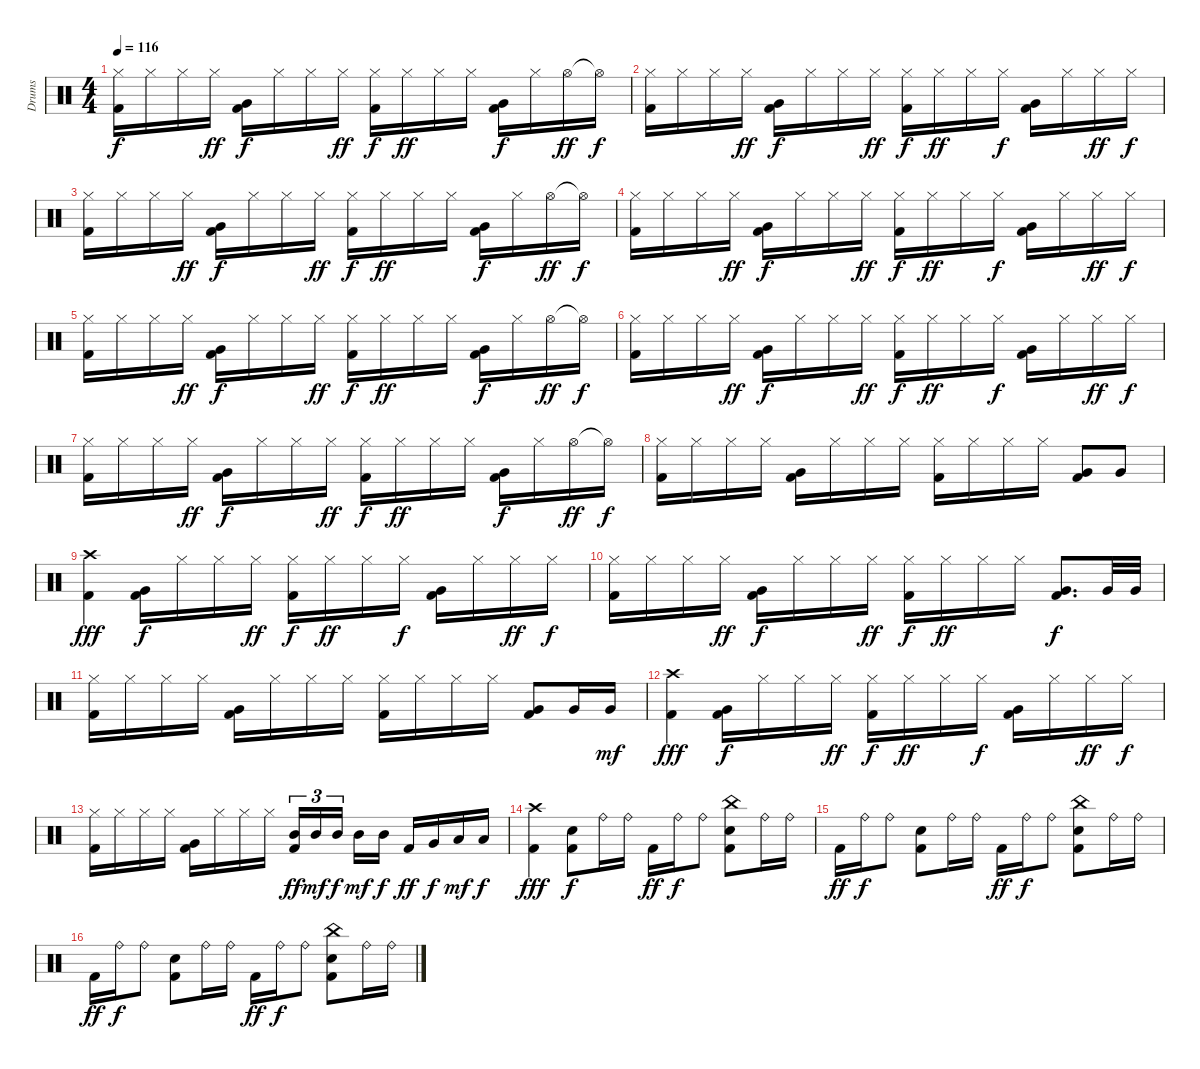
\track ("Drums" "Drums") {instrument percussion}
\staff {score}
\articulation defaults
\ts (4 4)
\tempo 116
\clef neutral
\ks c
("Hi-Hat (closed)" "Kick (hit) 2").16{dy f} "Hi-Hat (closed)".16 "Hi-Hat (closed)".16 "Hi-Hat (closed)".16{dy ff} ("Very Low Tom (hit)" "Kick (hit) 2").16{dy f} "Hi-Hat (closed)".16 "Hi-Hat (closed)".16 "Hi-Hat (closed)".16{dy ff} ("Hi-Hat (closed)" "Kick (hit) 2").16{dy f} "Hi-Hat (closed)".16{dy ff} "Hi-Hat (closed)".16 "Hi-Hat (closed)".16 ("Very Low Tom (hit)" "Kick (hit) 2").16{dy f} "Hi-Hat (closed)".16 "Hi-Hat (open)".16{dy ff} "Hi-Hat (open)"{t}.16{dy f} |
("Hi-Hat (closed)" "Kick (hit) 2").16 "Hi-Hat (closed)".16 "Hi-Hat (closed)".16 "Hi-Hat (closed)".16{dy ff} ("Very Low Tom (hit)" "Kick (hit) 2").16{dy f} "Hi-Hat (closed)".16 "Hi-Hat (closed)".16 "Hi-Hat (closed)".16{dy ff} ("Hi-Hat (closed)" "Kick (hit) 2").16{dy f} "Hi-Hat (closed)".16{dy ff} "Hi-Hat (closed)".16 "Hi-Hat (closed)".16{dy f} ("Very Low Tom (hit)" "Kick (hit) 2").16 "Hi-Hat (closed)".16 "Hi-Hat (closed)".16{dy ff} "Hi-Hat (closed)".16{dy f} |
("Hi-Hat (closed)" "Kick (hit) 2").16 "Hi-Hat (closed)".16 "Hi-Hat (closed)".16 "Hi-Hat (closed)".16{dy ff} ("Very Low Tom (hit)" "Kick (hit) 2").16{dy f} "Hi-Hat (closed)".16 "Hi-Hat (closed)".16 "Hi-Hat (closed)".16{dy ff} ("Hi-Hat (closed)" "Kick (hit) 2").16{dy f} "Hi-Hat (closed)".16{dy ff} "Hi-Hat (closed)".16 "Hi-Hat (closed)".16 ("Very Low Tom (hit)" "Kick (hit) 2").16{dy f} "Hi-Hat (closed)".16 "Hi-Hat (open)".16{dy ff} "Hi-Hat (open)"{t}.16{dy f} |
("Hi-Hat (closed)" "Kick (hit) 2").16 "Hi-Hat (closed)".16 "Hi-Hat (closed)".16 "Hi-Hat (closed)".16{dy ff} ("Very Low Tom (hit)" "Kick (hit) 2").16{dy f} "Hi-Hat (closed)".16 "Hi-Hat (closed)".16 "Hi-Hat (closed)".16{dy ff} ("Hi-Hat (closed)" "Kick (hit) 2").16{dy f} "Hi-Hat (closed)".16{dy ff} "Hi-Hat (closed)".16 "Hi-Hat (closed)".16{dy f} ("Very Low Tom (hit)" "Kick (hit) 2").16 "Hi-Hat (closed)".16 "Hi-Hat (closed)".16{dy ff} "Hi-Hat (closed)".16{dy f} |
("Hi-Hat (closed)" "Kick (hit) 2").16 "Hi-Hat (closed)".16 "Hi-Hat (closed)".16 "Hi-Hat (closed)".16{dy ff} ("Very Low Tom (hit)" "Kick (hit) 2").16{dy f} "Hi-Hat (closed)".16 "Hi-Hat (closed)".16 "Hi-Hat (closed)".16{dy ff} ("Hi-Hat (closed)" "Kick (hit) 2").16{dy f} "Hi-Hat (closed)".16{dy ff} "Hi-Hat (closed)".16 "Hi-Hat (closed)".16 ("Very Low Tom (hit)" "Kick (hit) 2").16{dy f} "Hi-Hat (closed)".16 "Hi-Hat (open)".16{dy ff} "Hi-Hat (open)"{t}.16{dy f} |
("Hi-Hat (closed)" "Kick (hit) 2").16 "Hi-Hat (closed)".16 "Hi-Hat (closed)".16 "Hi-Hat (closed)".16{dy ff} ("Very Low Tom (hit)" "Kick (hit) 2").16{dy f} "Hi-Hat (closed)".16 "Hi-Hat (closed)".16 "Hi-Hat (closed)".16{dy ff} ("Hi-Hat (closed)" "Kick (hit) 2").16{dy f} "Hi-Hat (closed)".16{dy ff} "Hi-Hat (closed)".16 "Hi-Hat (closed)".16{dy f} ("Very Low Tom (hit)" "Kick (hit) 2").16 "Hi-Hat (closed)".16 "Hi-Hat (closed)".16{dy ff} "Hi-Hat (closed)".16{dy f} |
("Hi-Hat (closed)" "Kick (hit) 2").16 "Hi-Hat (closed)".16 "Hi-Hat (closed)".16 "Hi-Hat (closed)".16{dy ff} ("Very Low Tom (hit)" "Kick (hit) 2").16{dy f} "Hi-Hat (closed)".16 "Hi-Hat (closed)".16 "Hi-Hat (closed)".16{dy ff} ("Hi-Hat (closed)" "Kick (hit) 2").16{dy f} "Hi-Hat (closed)".16{dy ff} "Hi-Hat (closed)".16 "Hi-Hat (closed)".16 ("Very Low Tom (hit)" "Kick (hit) 2").16{dy f} "Hi-Hat (closed)".16 "Hi-Hat (open)".16{dy ff} "Hi-Hat (open)"{t}.16{dy f} |
("Hi-Hat (closed)" "Kick (hit) 2").16 "Hi-Hat (closed)".16 "Hi-Hat (closed)".16 "Hi-Hat (closed)".16 ("Very Low Tom (hit)" "Kick (hit) 2").16 "Hi-Hat (closed)".16 "Hi-Hat (closed)".16 "Hi-Hat (closed)".16 ("Hi-Hat (closed)" "Kick (hit) 2").16 "Hi-Hat (closed)".16 "Hi-Hat (closed)".16 "Hi-Hat (closed)".16 ("Very Low Tom (hit)" "Kick (hit) 2").8 "Very Low Tom (hit)".8 |
("Crash high (hit)" "Kick (hit) 2").4{dy fff} ("Very Low Tom (hit)" "Kick (hit) 2").16{dy f} "Hi-Hat (closed)".16 "Hi-Hat (closed)".16 "Hi-Hat (closed)".16{dy ff} ("Hi-Hat (closed)" "Kick (hit) 2").16{dy f} "Hi-Hat (closed)".16{dy ff} "Hi-Hat (closed)".16 "Hi-Hat (closed)".16{dy f} ("Very Low Tom (hit)" "Kick (hit) 2").16 "Hi-Hat (closed)".16 "Hi-Hat (closed)".16{dy ff} "Hi-Hat (closed)".16{dy f} |
("Hi-Hat (closed)" "Kick (hit) 2").16 "Hi-Hat (closed)".16 "Hi-Hat (closed)".16 "Hi-Hat (closed)".16{dy ff} ("Very Low Tom (hit)" "Kick (hit) 2").16{dy f} "Hi-Hat (closed)".16 "Hi-Hat (closed)".16 "Hi-Hat (closed)".16{dy ff} ("Hi-Hat (closed)" "Kick (hit) 2").16{dy f} "Hi-Hat (closed)".16{dy ff} "Hi-Hat (closed)".16 "Hi-Hat (closed)".16 ("Very Low Tom (hit)" "Kick (hit) 2").8{d dy f} "Very Low Tom (hit)".32 "Very Low Tom (hit)".32 |
("Hi-Hat (closed)" "Kick (hit) 2").16 "Hi-Hat (closed)".16 "Hi-Hat (closed)".16 "Hi-Hat (closed)".16 ("Very Low Tom (hit)" "Kick (hit) 2").16 "Hi-Hat (closed)".16 "Hi-Hat (closed)".16 "Hi-Hat (closed)".16 ("Hi-Hat (closed)" "Kick (hit) 2").16 "Hi-Hat (closed)".16 "Hi-Hat (closed)".16 "Hi-Hat (closed)".16 ("Very Low Tom (hit)" "Kick (hit) 2").8 "Very Low Tom (hit)".16 "Very Low Tom (hit)".16{dy mf} |
("Crash high (hit)" "Kick (hit) 2").4{dy fff} ("Very Low Tom (hit)" "Kick (hit) 2").16{dy f} "Hi-Hat (closed)".16 "Hi-Hat (closed)".16 "Hi-Hat (closed)".16{dy ff} ("Hi-Hat (closed)" "Kick (hit) 2").16{dy f} "Hi-Hat (closed)".16{dy ff} "Hi-Hat (closed)".16 "Hi-Hat (closed)".16{dy f} ("Very Low Tom (hit)" "Kick (hit) 2").16 "Hi-Hat (closed)".16 "Hi-Hat (closed)".16{dy ff} "Hi-Hat (closed)".16{dy f} |
("Hi-Hat (closed)" "Kick (hit) 2").16 "Hi-Hat (closed)".16 "Hi-Hat (closed)".16 "Hi-Hat (closed)".16 ("Very Low Tom (hit)" "Kick (hit) 2").16 "Hi-Hat (closed)".16 "Hi-Hat (closed)".16 "Hi-Hat (closed)".16 ("Mid Tom (hit)" "Kick (hit) 2").16{tu (3 2) dy ff} "Mid Tom (hit)".16{tu (3 2) dy mf} "Mid Tom (hit)".16{tu (3 2) dy f} "Mid Tom (hit)".16{dy mf} "Mid Tom (hit)".16{dy f} "Kick (hit) 2".16{dy ff} "Very Low Tom (hit)".16{dy f} "Low Floor Tom (hit)".16{dy mf} "Low Floor Tom (hit)".16{dy f} |
("Crash high (hit)" "Kick (hit) 2").4{dy fff} ("Snare (hit) 2" "Kick (hit) 2").8{dy f} "Ride (bell)".16 "Ride (bell)".16 "Kick (hit) 2".16{dy ff} "Ride (bell)".16{dy f} "Ride (bell)".8 ("China (hit)" "Snare (hit) 2" "Kick (hit) 2").8 "Ride (bell)".16 "Ride (bell)".16 |
"Kick (hit) 2".16{dy ff} "Ride (bell)".16{dy f} "Ride (bell)".8 ("Snare (hit) 2" "Kick (hit) 2").8 "Ride (bell)".16 "Ride (bell)".16 "Kick (hit) 2".16{dy ff} "Ride (bell)".16{dy f} "Ride (bell)".8 ("China (hit)" "Snare (hit) 2" "Kick (hit) 2").8 "Ride (bell)".16 "Ride (bell)".16 |
"Kick (hit) 2".16{dy ff} "Ride (bell)".16{dy f} "Ride (bell)".8 ("Snare (hit) 2" "Kick (hit) 2").8 "Ride (bell)".16 "Ride (bell)".16 "Kick (hit) 2".16{dy ff} "Ride (bell)".16{dy f} "Ride (bell)".8 ("China (hit)" "Snare (hit) 2" "Kick (hit) 2").8 "Ride (bell)".16 "Ride (bell)".16
